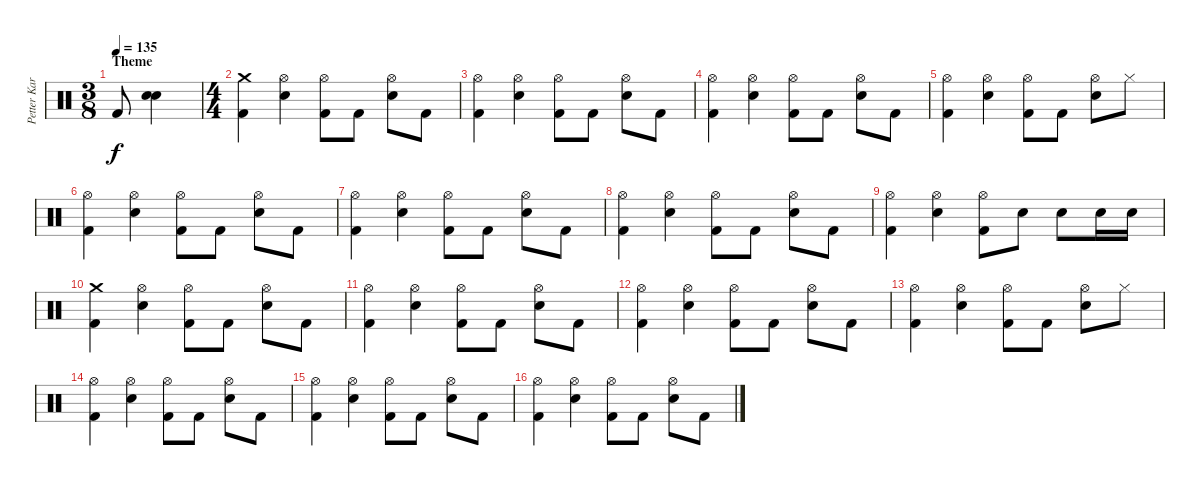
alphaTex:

\track ("Petter Karlsson" "Petter Kar") {instrument percussion}
\staff {score}
\articulation defaults
\ts (3 8)
\section ("" "Theme")
\tempo 135
\clef neutral
\ks c "Kick (hit) 2".8{dy f}
("Snare (hit) 2" "Electric Snare (hit)").4 |
\ts (4 4)
("Crash medium (hit)" "Kick (hit) 2").4 ("Hi-Hat (open)" "Electric Snare (hit)").4 ("Hi-Hat (open)" "Kick (hit) 2").8 "Kick (hit) 2".8 ("Hi-Hat (open)" "Electric Snare (hit)").8 "Kick (hit) 2".8 |
("Hi-Hat (open)" "Kick (hit) 2").4 ("Hi-Hat (open)" "Electric Snare (hit)").4 ("Hi-Hat (open)" "Kick (hit) 2").8 "Kick (hit) 2".8 ("Hi-Hat (open)" "Electric Snare (hit)").8 "Kick (hit) 2".8 |
("Hi-Hat (open)" "Kick (hit) 2").4 ("Hi-Hat (open)" "Electric Snare (hit)").4 ("Hi-Hat (open)" "Kick (hit) 2").8 "Kick (hit) 2".8 ("Hi-Hat (open)" "Electric Snare (hit)").8 "Kick (hit) 2".8 |
("Hi-Hat (open)" "Kick (hit) 2").4 ("Hi-Hat (open)" "Electric Snare (hit)").4 ("Hi-Hat (open)" "Kick (hit) 2").8 "Kick (hit) 2".8 ("Hi-Hat (open)" "Electric Snare (hit)").8 "Hi-Hat (closed)".8 |
("Hi-Hat (open)" "Kick (hit) 2").4 ("Hi-Hat (open)" "Electric Snare (hit)").4 ("Hi-Hat (open)" "Kick (hit) 2").8 "Kick (hit) 2".8 ("Hi-Hat (open)" "Electric Snare (hit)").8 "Kick (hit) 2".8 |
("Hi-Hat (open)" "Kick (hit) 2").4 ("Hi-Hat (open)" "Electric Snare (hit)").4 ("Hi-Hat (open)" "Kick (hit) 2").8 "Kick (hit) 2".8 ("Hi-Hat (open)" "Electric Snare (hit)").8 "Kick (hit) 2".8 |
("Hi-Hat (open)" "Kick (hit) 2").4 ("Hi-Hat (open)" "Electric Snare (hit)").4 ("Hi-Hat (open)" "Kick (hit) 2").8 "Kick (hit) 2".8 ("Hi-Hat (open)" "Electric Snare (hit)").8 "Kick (hit) 2".8 |
("Hi-Hat (open)" "Kick (hit) 2").4 ("Hi-Hat (open)" "Electric Snare (hit)").4 ("Hi-Hat (open)" "Kick (hit) 2").8 "Electric Snare (hit)".8 "Electric Snare (hit)".8 "Electric Snare (hit)".16 "Electric Snare (hit)".16 |
("Crash medium (hit)" "Kick (hit) 2").4 ("Hi-Hat (open)" "Electric Snare (hit)").4 ("Hi-Hat (open)" "Kick (hit) 2").8 "Kick (hit) 2".8 ("Hi-Hat (open)" "Electric Snare (hit)").8 "Kick (hit) 2".8 |
("Hi-Hat (open)" "Kick (hit) 2").4 ("Hi-Hat (open)" "Electric Snare (hit)").4 ("Hi-Hat (open)" "Kick (hit) 2").8 "Kick (hit) 2".8 ("Hi-Hat (open)" "Electric Snare (hit)").8 "Kick (hit) 2".8 |
("Hi-Hat (open)" "Kick (hit) 2").4 ("Hi-Hat (open)" "Electric Snare (hit)").4 ("Hi-Hat (open)" "Kick (hit) 2").8 "Kick (hit) 2".8 ("Hi-Hat (open)" "Electric Snare (hit)").8 "Kick (hit) 2".8 |
("Hi-Hat (open)" "Kick (hit) 2").4 ("Hi-Hat (open)" "Electric Snare (hit)").4 ("Hi-Hat (open)" "Kick (hit) 2").8 "Kick (hit) 2".8 ("Hi-Hat (open)" "Electric Snare (hit)").8 "Hi-Hat (closed)".8 |
("Hi-Hat (open)" "Kick (hit) 2").4 ("Hi-Hat (open)" "Electric Snare (hit)").4 ("Hi-Hat (open)" "Kick (hit) 2").8 "Kick (hit) 2".8 ("Hi-Hat (open)" "Electric Snare (hit)").8 "Kick (hit) 2".8 |
("Hi-Hat (open)" "Kick (hit) 2").4 ("Hi-Hat (open)" "Electric Snare (hit)").4 ("Hi-Hat (open)" "Kick (hit) 2").8 "Kick (hit) 2".8 ("Hi-Hat (open)" "Electric Snare (hit)").8 "Kick (hit) 2".8 |
("Hi-Hat (open)" "Kick (hit) 2").4 ("Hi-Hat (open)" "Electric Snare (hit)").4 ("Hi-Hat (open)" "Kick (hit) 2").8 "Kick (hit) 2".8 ("Hi-Hat (open)" "Electric Snare (hit)").8 "Kick (hit) 2".8
